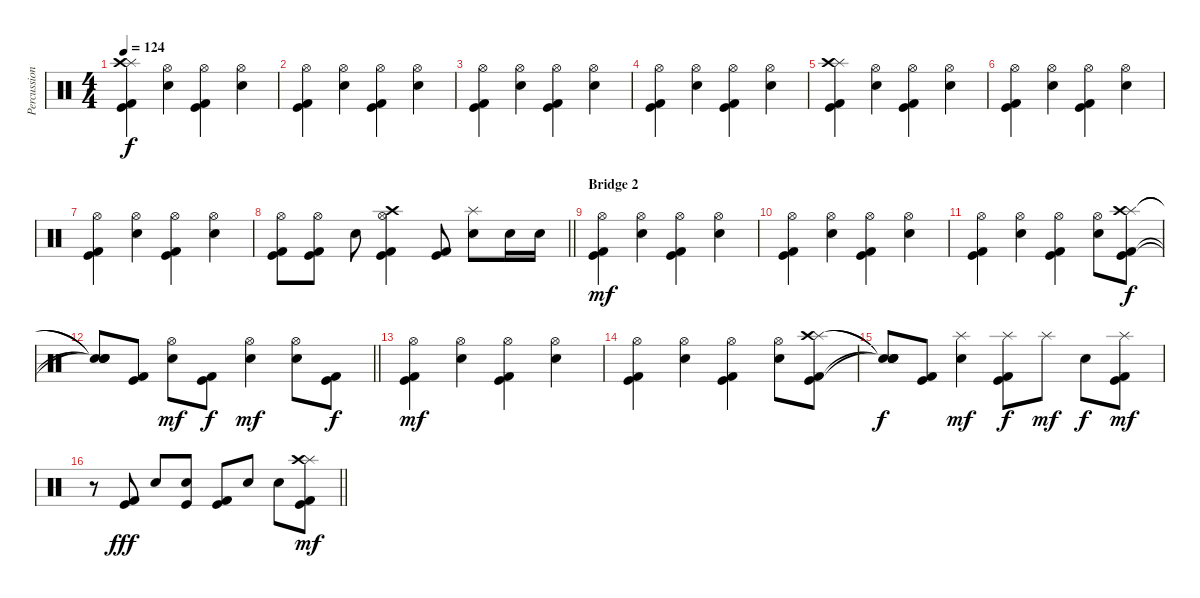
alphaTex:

\track ("Percussion" "Percussion") {instrument percussion}
\staff {score}
\articulation defaults
\ts (4 4)
\tempo 124
\clef neutral
\ks c
("Splash (hit)" "Crash high (hit)" "Kick (hit)" "Kick (hit) 2").4{dy f} ("Hi-Hat (open)" "Snare (hit) 2").4 ("Hi-Hat (open)" "Kick (hit)" "Kick (hit) 2").4 ("Hi-Hat (open)" "Snare (hit) 2").4 |
("Hi-Hat (open)" "Kick (hit)" "Kick (hit) 2").4 ("Hi-Hat (open)" "Snare (hit) 2").4 ("Hi-Hat (open)" "Kick (hit)" "Kick (hit) 2").4 ("Hi-Hat (open)" "Snare (hit) 2").4 |
("Hi-Hat (open)" "Kick (hit)" "Kick (hit) 2").4 ("Hi-Hat (open)" "Snare (hit) 2").4 ("Hi-Hat (open)" "Kick (hit)" "Kick (hit) 2").4 ("Hi-Hat (open)" "Snare (hit) 2").4 |
("Hi-Hat (open)" "Kick (hit)" "Kick (hit) 2").4 ("Hi-Hat (open)" "Snare (hit) 2").4 ("Hi-Hat (open)" "Kick (hit)" "Kick (hit) 2").4 ("Hi-Hat (open)" "Snare (hit) 2").4 |
("Splash (hit)" "Crash high (hit)" "Kick (hit)" "Kick (hit) 2").4 ("Hi-Hat (open)" "Snare (hit) 2").4 ("Hi-Hat (open)" "Kick (hit)" "Kick (hit) 2").4 ("Hi-Hat (open)" "Snare (hit) 2").4 |
("Hi-Hat (open)" "Kick (hit)" "Kick (hit) 2").4 ("Hi-Hat (open)" "Snare (hit) 2").4 ("Hi-Hat (open)" "Kick (hit)" "Kick (hit) 2").4 ("Hi-Hat (open)" "Snare (hit) 2").4 |
("Hi-Hat (open)" "Kick (hit)" "Kick (hit) 2").4 ("Hi-Hat (open)" "Snare (hit) 2").4 ("Hi-Hat (open)" "Kick (hit)" "Kick (hit) 2").4 ("Hi-Hat (open)" "Snare (hit) 2").4 |
\barLineRight lightlight
("Hi-Hat (open)" "Kick (hit)" "Kick (hit) 2").8 ("Hi-Hat (open)" "Kick (hit) 2" "Kick (hit)").8 "Snare (hit) 2".8 ("Crash high (hit)" "Hi-Hat (open)" "Kick (hit)" "Kick (hit) 2").4 ("Kick (hit)" "Kick (hit) 2").8 ("Splash (hit)" "Snare (hit) 2").8 "Electric Snare (hit)".16 "Electric Snare (hit)".16 |
\section ("" "Bridge 2")
("Hi-Hat (open)" "Kick (hit)" "Kick (hit) 2").4{dy mf} ("Hi-Hat (open)" "Snare (hit) 2").4 ("Hi-Hat (open)" "Kick (hit)" "Kick (hit) 2").4 ("Hi-Hat (open)" "Snare (hit) 2").4 |
("Hi-Hat (open)" "Kick (hit)" "Kick (hit) 2").4 ("Hi-Hat (open)" "Snare (hit) 2").4 ("Hi-Hat (open)" "Kick (hit)" "Kick (hit) 2").4 ("Hi-Hat (open)" "Snare (hit) 2").4 |
("Hi-Hat (open)" "Kick (hit)" "Kick (hit) 2").4 ("Hi-Hat (open)" "Snare (hit) 2").4 ("Hi-Hat (open)" "Kick (hit)" "Kick (hit) 2").4 ("Hi-Hat (open)" "Snare (hit) 2").8 ("Splash (hit)" "Crash high (hit)" "Kick (hit)" "Kick (hit) 2").8{dy f} |
\barLineRight lightlight
("Snare (hit)"{t} "Snare (hit)"{t} "Snare (hit)"{t} "Snare (hit)"{t}).8 ("Kick (hit)" "Kick (hit) 2").8 ("Hi-Hat (open)" "Snare (hit) 2").8{dy mf} ("Kick (hit)" "Kick (hit) 2").8{dy f} ("Hi-Hat (open)" "Snare (hit) 2").4{dy mf} ("Hi-Hat (open)" "Snare (hit) 2").8 ("Kick (hit)" "Kick (hit) 2").8{dy f} |
("Hi-Hat (open)" "Kick (hit)" "Kick (hit) 2").4{dy mf} ("Hi-Hat (open)" "Snare (hit) 2").4 ("Hi-Hat (open)" "Kick (hit)" "Kick (hit) 2").4 ("Hi-Hat (open)" "Snare (hit) 2").4 |
("Hi-Hat (open)" "Kick (hit)" "Kick (hit) 2").4 ("Hi-Hat (open)" "Snare (hit) 2").4 ("Hi-Hat (open)" "Kick (hit)" "Kick (hit) 2").4 ("Hi-Hat (open)" "Snare (hit) 2").8 ("Splash (hit)" "Crash high (hit)" "Kick (hit)" "Kick (hit) 2").8 |
("Snare (hit)"{t} "Snare (hit)"{t} "Snare (hit)"{t} "Snare (hit)"{t}).8{dy f} ("Kick (hit)" "Kick (hit) 2").8 ("Splash (hit)" "Snare (hit) 2").4{dy mf} ("Splash (hit)" "Kick (hit)" "Kick (hit) 2").8{dy f} "Splash (hit)".8{dy mf} "Snare (hit) 2".8{dy f} ("Splash (hit)" "Kick (hit)" "Kick (hit) 2").8{dy mf} |
\barLineRight lightlight
r.8 ("Kick (hit)" "Kick (hit) 2").8{dy fff} "Snare (hit) 2".8 ("Snare (hit) 2" "Kick (hit)").8 ("Kick (hit)" "Kick (hit) 2").8 "Snare (hit) 2".8 "Snare (hit) 2".8 ("Splash (hit)" "Crash high (hit)" "Kick (hit)" "Kick (hit) 2").8{dy mf}
